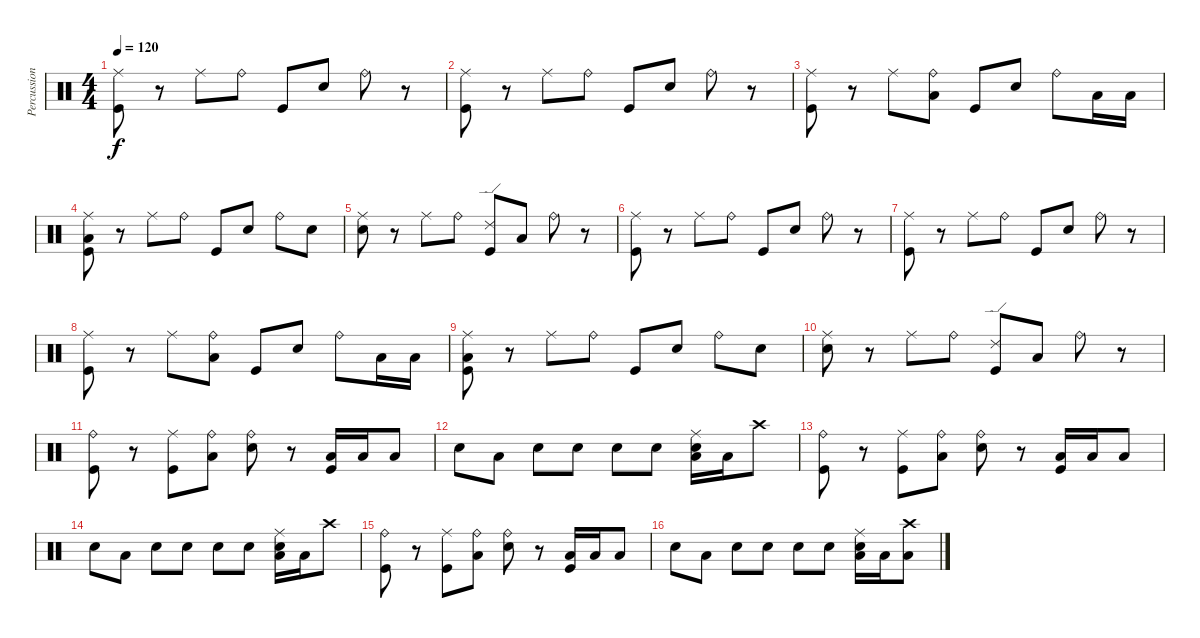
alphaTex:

\track ("Percussion" "Percussion") {instrument percussion}
\staff {score}
\articulation defaults
\ts (4 4)
\tempo 120
\clef neutral
\ks c
("Ride (middle)" "Kick (hit)").8{dy f} r.8 "Ride (middle)".8 "Ride (bell)".8 "Kick (hit)".8 "Electric Snare (hit)".8 "Ride (bell)".8 r.8 |
("Ride (middle)" "Kick (hit)").8 r.8 "Ride (middle)".8 "Ride (bell)".8 "Kick (hit)".8 "Electric Snare (hit)".8 "Ride (bell)".8 r.8 |
("Ride (middle)" "Kick (hit)").8 r.8 "Ride (middle)".8 ("Ride (bell)" "Low Tom (hit)").8 "Kick (hit)".8 "Electric Snare (hit)".8 "Ride (bell)".8 "Low Tom (hit)".16 "Low Tom (hit)".16 |
("Ride (middle)" "Low Tom (hit)" "Kick (hit)").8 r.8 "Ride (middle)".8 "Ride (bell)".8 "Kick (hit)".8 "Electric Snare (hit)".8 "Ride (bell)".8 "Electric Snare (hit)".8 |
("Ride (middle)" "Electric Snare (hit)").8 r.8 "Ride (middle)".8 "Ride (bell)".8 ("Ride (edge) 2" "Kick (hit)").8 "Low Tom (hit)".8 "Ride (bell)".8 r.8 |
("Ride (middle)" "Kick (hit)").8 r.8 "Ride (middle)".8 "Ride (bell)".8 "Kick (hit)".8 "Electric Snare (hit)".8 "Ride (bell)".8 r.8 |
("Ride (middle)" "Kick (hit)").8 r.8 "Ride (middle)".8 "Ride (bell)".8 "Kick (hit)".8 "Electric Snare (hit)".8 "Ride (bell)".8 r.8 |
("Ride (middle)" "Kick (hit)").8 r.8 "Ride (middle)".8 ("Ride (bell)" "Low Tom (hit)").8 "Kick (hit)".8 "Electric Snare (hit)".8 "Ride (bell)".8 "Low Tom (hit)".16 "Low Tom (hit)".16 |
("Ride (middle)" "Low Tom (hit)" "Kick (hit)").8 r.8 "Ride (middle)".8 "Ride (bell)".8 "Kick (hit)".8 "Electric Snare (hit)".8 "Ride (bell)".8 "Electric Snare (hit)".8 |
("Ride (middle)" "Electric Snare (hit)").8 r.8 "Ride (middle)".8 "Ride (bell)".8 ("Ride (edge) 2" "Kick (hit)").8 "Low Tom (hit)".8 "Ride (bell)".8 r.8 |
("Ride (bell)" "Kick (hit)").8 r.8 ("Ride (middle)" "Kick (hit)").8 ("Ride (bell)" "Low Tom (hit)").8 ("Ride (bell)" "Electric Snare (hit)").8 r.8 ("Low Tom (hit)" "Kick (hit)").16 "Low Tom (hit)".16 "Low Tom (hit)".8 |
"Electric Snare (hit)".8 "Low Tom (hit)".8 "Electric Snare (hit)".8 "Electric Snare (hit)".8 "Electric Snare (hit)".8 "Electric Snare (hit)".8 ("Ride (middle)" "Low Tom (hit)" "Electric Snare (hit)").16 "Low Tom (hit)".16 "Crash high (hit)".8 |
("Ride (bell)" "Kick (hit)").8 r.8 ("Ride (middle)" "Kick (hit)").8 ("Ride (bell)" "Low Tom (hit)").8 ("Ride (bell)" "Electric Snare (hit)").8 r.8 ("Low Tom (hit)" "Kick (hit)").16 "Low Tom (hit)".16 "Low Tom (hit)".8 |
"Electric Snare (hit)".8 "Low Tom (hit)".8 "Electric Snare (hit)".8 "Electric Snare (hit)".8 "Electric Snare (hit)".8 "Electric Snare (hit)".8 ("Ride (middle)" "Low Tom (hit)" "Electric Snare (hit)").16 "Low Tom (hit)".16 "Crash high (hit)".8 |
("Ride (bell)" "Kick (hit)").8 r.8 ("Ride (middle)" "Kick (hit)").8 ("Ride (bell)" "Low Tom (hit)").8 ("Ride (bell)" "Electric Snare (hit)").8 r.8 ("Low Tom (hit)" "Kick (hit)").16 "Low Tom (hit)".16 "Low Tom (hit)".8 |
"Electric Snare (hit)".8 "Low Tom (hit)".8 "Electric Snare (hit)".8 "Electric Snare (hit)".8 "Electric Snare (hit)".8 "Electric Snare (hit)".8 ("Ride (middle)" "Low Tom (hit)" "Electric Snare (hit)").16 "Low Tom (hit)".16 ("Crash high (hit)" "Low Tom (hit)").8
